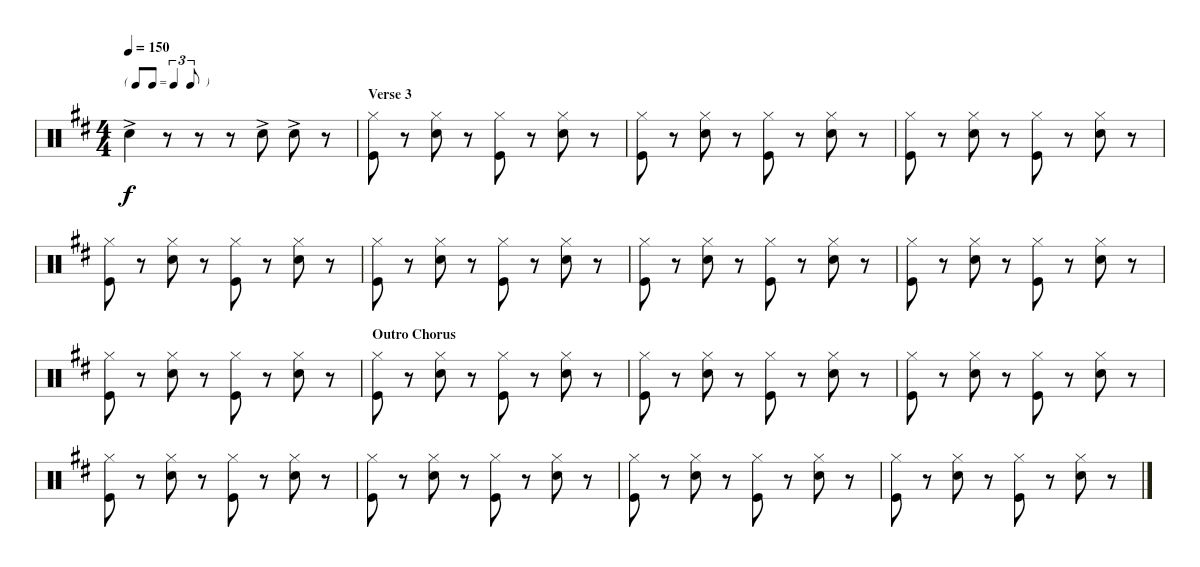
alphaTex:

\bracketExtendMode nobrackets
\singleTrackTrackNamePolicy hidden
\multiTrackTrackNamePolicy hidden
\firstSystemTrackNameMode fullname
\firstSystemTrackNameOrientation horizontal
\otherSystemsTrackNameOrientation horizontal
\defaultBarNumberDisplay Hide
\track ("Drumkit" "Drums") {instrument percussion}
\staff {score}
\articulation defaults
\ts (4 4)
\tf triplet8th
\tempo 150
\clef neutral
\ks d "Snare (hit) 2"{ac}.4{dy f}
r.8 r.8 r.8 "Snare (hit) 2"{ac}.8 "Snare (hit) 2"{ac}.8 r.8 |
\section ("" "Verse 3")
("Kick (hit)" "Hi-Hat (closed)").8 r.8 ("Snare (hit) 2" "Hi-Hat (closed)").8 r.8 ("Kick (hit)" "Hi-Hat (closed)").8 r.8 ("Snare (hit) 2" "Hi-Hat (closed)").8 r.8 |
("Kick (hit)" "Hi-Hat (closed)").8 r.8 ("Snare (hit) 2" "Hi-Hat (closed)").8 r.8 ("Kick (hit)" "Hi-Hat (closed)").8 r.8 ("Snare (hit) 2" "Hi-Hat (closed)").8 r.8 |
("Kick (hit)" "Hi-Hat (closed)").8 r.8 ("Snare (hit) 2" "Hi-Hat (closed)").8 r.8 ("Kick (hit)" "Hi-Hat (closed)").8 r.8 ("Snare (hit) 2" "Hi-Hat (closed)").8 r.8 |
("Kick (hit)" "Hi-Hat (closed)").8 r.8 ("Snare (hit) 2" "Hi-Hat (closed)").8 r.8 ("Kick (hit)" "Hi-Hat (closed)").8 r.8 ("Snare (hit) 2" "Hi-Hat (closed)").8 r.8 |
("Kick (hit)" "Hi-Hat (closed)").8 r.8 ("Snare (hit) 2" "Hi-Hat (closed)").8 r.8 ("Kick (hit)" "Hi-Hat (closed)").8 r.8 ("Snare (hit) 2" "Hi-Hat (closed)").8 r.8 |
("Kick (hit)" "Hi-Hat (closed)").8 r.8 ("Snare (hit) 2" "Hi-Hat (closed)").8 r.8 ("Kick (hit)" "Hi-Hat (closed)").8 r.8 ("Snare (hit) 2" "Hi-Hat (closed)").8 r.8 |
("Kick (hit)" "Hi-Hat (closed)").8 r.8 ("Snare (hit) 2" "Hi-Hat (closed)").8 r.8 ("Kick (hit)" "Hi-Hat (closed)").8 r.8 ("Snare (hit) 2" "Hi-Hat (closed)").8 r.8 |
\scale
0.615385 ("Kick (hit)" "Hi-Hat (closed)").8 r.8 ("Snare (hit) 2" "Hi-Hat (closed)").8 r.8 ("Kick (hit)" "Hi-Hat (closed)").8 r.8 ("Snare (hit) 2" "Hi-Hat (closed)").8 r.8 |
\section ("" "Outro Chorus")
\scale
0.384615 ("Kick (hit)" "Hi-Hat (closed)").8 r.8 ("Snare (hit) 2" "Hi-Hat (closed)").8 r.8 ("Kick (hit)" "Hi-Hat (closed)").8 r.8 ("Snare (hit) 2" "Hi-Hat (closed)").8 r.8 |
("Kick (hit)" "Hi-Hat (closed)").8 r.8 ("Snare (hit) 2" "Hi-Hat (closed)").8 r.8 ("Kick (hit)" "Hi-Hat (closed)").8 r.8 ("Snare (hit) 2" "Hi-Hat (closed)").8 r.8 |
("Kick (hit)" "Hi-Hat (closed)").8 r.8 ("Snare (hit) 2" "Hi-Hat (closed)").8 r.8 ("Kick (hit)" "Hi-Hat (closed)").8 r.8 ("Snare (hit) 2" "Hi-Hat (closed)").8 r.8 |
("Kick (hit)" "Hi-Hat (closed)").8 r.8 ("Snare (hit) 2" "Hi-Hat (closed)").8 r.8 ("Kick (hit)" "Hi-Hat (closed)").8 r.8 ("Snare (hit) 2" "Hi-Hat (closed)").8 r.8 |
("Kick (hit)" "Hi-Hat (closed)").8 r.8 ("Snare (hit) 2" "Hi-Hat (closed)").8 r.8 ("Kick (hit)" "Hi-Hat (closed)").8 r.8 ("Snare (hit) 2" "Hi-Hat (closed)").8 r.8 |
("Kick (hit)" "Hi-Hat (closed)").8 r.8 ("Snare (hit) 2" "Hi-Hat (closed)").8 r.8 ("Kick (hit)" "Hi-Hat (closed)").8 r.8 ("Snare (hit) 2" "Hi-Hat (closed)").8 r.8 |
("Kick (hit)" "Hi-Hat (closed)").8 r.8 ("Snare (hit) 2" "Hi-Hat (closed)").8 r.8 ("Kick (hit)" "Hi-Hat (closed)").8 r.8 ("Snare (hit) 2" "Hi-Hat (closed)").8 r.8
